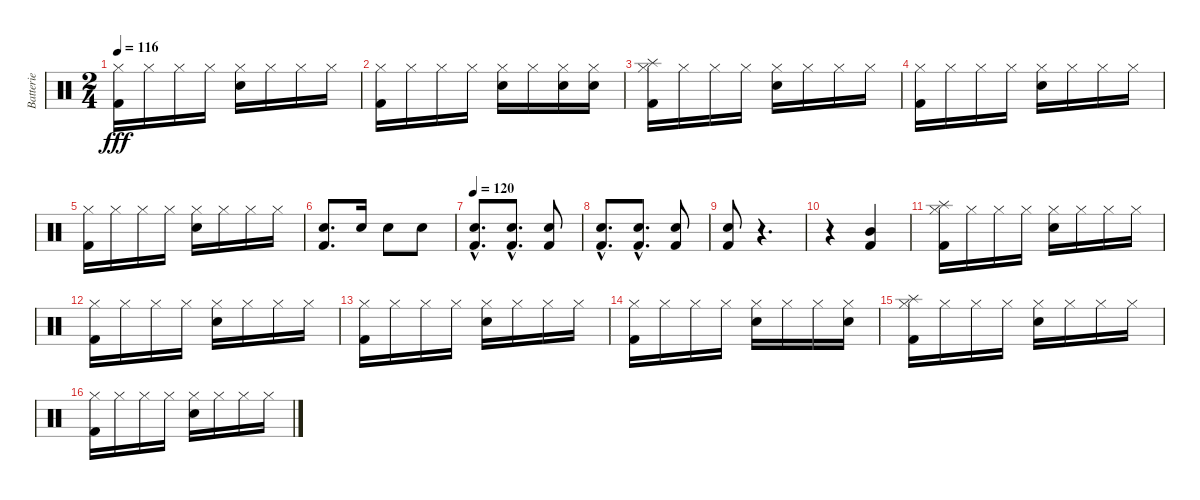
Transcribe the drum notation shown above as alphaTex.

\track ("Batterie" "Batterie") {instrument percussion}
\staff {score}
\articulation defaults
\ts (2 4)
\tempo 116
\clef neutral
\ks c
("Kick (hit) 2" "Hi-Hat (closed)").16{dy fff} "Hi-Hat (closed)".16 "Hi-Hat (closed)".16 "Hi-Hat (closed)".16 ("Hi-Hat (closed)" "Electric Snare (hit)").16 "Hi-Hat (closed)".16 "Hi-Hat (closed)".16 "Hi-Hat (closed)".16 |
("Kick (hit) 2" "Hi-Hat (closed)").16 "Hi-Hat (closed)".16 "Hi-Hat (closed)".16 "Hi-Hat (closed)".16 ("Electric Snare (hit)" "Hi-Hat (closed)").16 "Hi-Hat (closed)".16 ("Electric Snare (hit)" "Hi-Hat (closed)").16 ("Electric Snare (hit)" "Hi-Hat (closed)").16 |
("Kick (hit) 2" "Hi-Hat (closed)" "Splash (hit)").16 "Hi-Hat (closed)".16 "Hi-Hat (closed)".16 "Hi-Hat (closed)".16 ("Hi-Hat (closed)" "Electric Snare (hit)").16 "Hi-Hat (closed)".16 "Hi-Hat (closed)".16 "Hi-Hat (closed)".16 |
("Kick (hit) 2" "Hi-Hat (closed)").16 "Hi-Hat (closed)".16 "Hi-Hat (closed)".16 "Hi-Hat (closed)".16 ("Hi-Hat (closed)" "Electric Snare (hit)").16 "Hi-Hat (closed)".16 "Hi-Hat (closed)".16 "Hi-Hat (closed)".16 |
("Kick (hit) 2" "Hi-Hat (closed)").16 "Hi-Hat (closed)".16 "Hi-Hat (closed)".16 "Hi-Hat (closed)".16 ("Hi-Hat (closed)" "Electric Snare (hit)").16 "Hi-Hat (closed)".16 "Hi-Hat (closed)".16 "Hi-Hat (closed)".16 |
("Kick (hit) 2" "Electric Snare (hit)").8{d} "Electric Snare (hit)".16 "Electric Snare (hit)".8 "Electric Snare (hit)".8 |
\tempo 120
("Kick (hit) 2"{hac} "Electric Snare (hit)"{hac}).8{d} ("Kick (hit) 2"{hac} "Electric Snare (hit)"{hac}).8{d} ("Kick (hit) 2" "Electric Snare (hit)").8 |
("Kick (hit) 2"{hac} "Electric Snare (hit)"{hac}).8{d} ("Kick (hit) 2"{hac} "Electric Snare (hit)"{hac}).8{d} ("Kick (hit) 2" "Electric Snare (hit)").8 |
("Kick (hit) 2" "Electric Snare (hit)").8 r.4{d} |
r.4 ("Kick (hit) 2" "Mid Tom (hit)").4 |
("Kick (hit) 2" "Hi-Hat (closed)" "Splash (hit)").16 "Hi-Hat (closed)".16 "Hi-Hat (closed)".16 "Hi-Hat (closed)".16 ("Hi-Hat (closed)" "Electric Snare (hit)").16 "Hi-Hat (closed)".16 "Hi-Hat (closed)".16 "Hi-Hat (closed)".16 |
("Kick (hit) 2" "Hi-Hat (closed)").16 "Hi-Hat (closed)".16 "Hi-Hat (closed)".16 "Hi-Hat (closed)".16 ("Hi-Hat (closed)" "Electric Snare (hit)").16 "Hi-Hat (closed)".16 "Hi-Hat (closed)".16 "Hi-Hat (closed)".16 |
("Kick (hit) 2" "Hi-Hat (closed)").16 "Hi-Hat (closed)".16 "Hi-Hat (closed)".16 "Hi-Hat (closed)".16 ("Hi-Hat (closed)" "Electric Snare (hit)").16 "Hi-Hat (closed)".16 "Hi-Hat (closed)".16 "Hi-Hat (closed)".16 |
("Kick (hit) 2" "Hi-Hat (closed)").16 "Hi-Hat (closed)".16 "Hi-Hat (closed)".16 "Hi-Hat (closed)".16 ("Electric Snare (hit)" "Hi-Hat (closed)").16 "Hi-Hat (closed)".16 "Hi-Hat (closed)".16 ("Electric Snare (hit)" "Hi-Hat (closed)").16 |
("Kick (hit) 2" "Hi-Hat (closed)" "Splash (hit)").16 "Hi-Hat (closed)".16 "Hi-Hat (closed)".16 "Hi-Hat (closed)".16 ("Hi-Hat (closed)" "Electric Snare (hit)").16 "Hi-Hat (closed)".16 "Hi-Hat (closed)".16 "Hi-Hat (closed)".16 |
("Kick (hit) 2" "Hi-Hat (closed)").16 "Hi-Hat (closed)".16 "Hi-Hat (closed)".16 "Hi-Hat (closed)".16 ("Hi-Hat (closed)" "Electric Snare (hit)").16 "Hi-Hat (closed)".16 "Hi-Hat (closed)".16 "Hi-Hat (closed)".16
